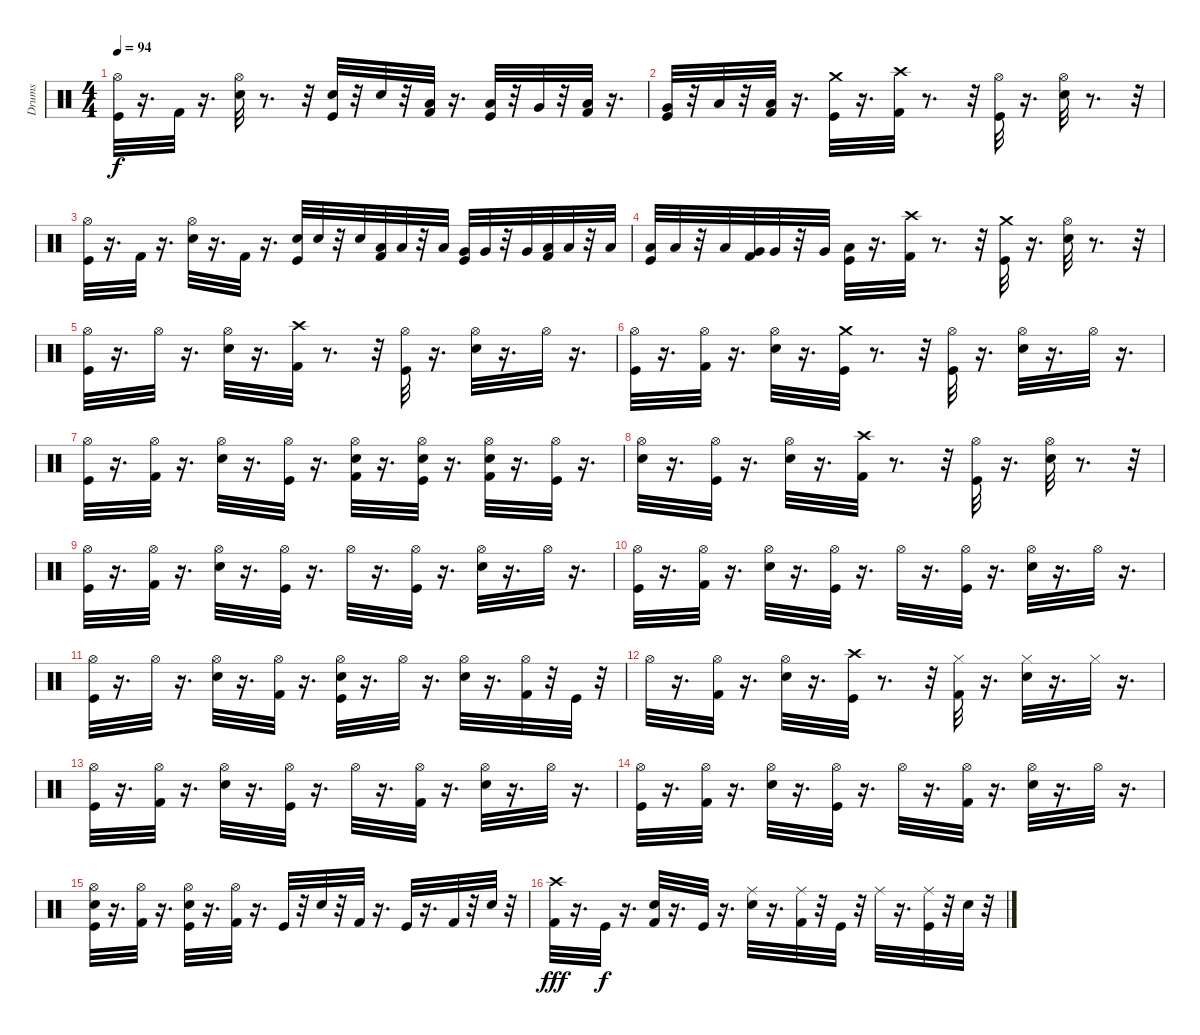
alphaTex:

\track ("Drums" "Drums") {instrument percussion}
\staff {score}
\articulation defaults
\ts (4 4)
\tempo 94
\clef neutral
\ks c
("Hi-Hat (open)" "Kick (hit)").32{dy f} r.16{d} "Kick (hit) 2".32 r.16{d} ("Electric Snare (hit)" "Hi-Hat (open)").32 r.8{d} r.32 ("Electric Snare (hit)" "Kick (hit)").32 r.32 "Electric Snare (hit)".32 r.32 ("Low Tom (hit)" "Kick (hit) 2").32 r.16{d} ("Low Tom (hit)" "Kick (hit)").32 r.32 "Very Low Tom (hit)".32 r.32 ("Low Floor Tom (hit)" "Kick (hit) 2").32 r.16{d} |
("Very Low Tom (hit)" "Kick (hit)").32 r.32 "Low Floor Tom (hit)".32 r.32 ("Kick (hit) 2" "Low Floor Tom (hit)").32 r.16{d} ("Crash medium (hit)" "Kick (hit)").32 r.16{d} ("Crash high (hit)" "Kick (hit) 2").32 r.8{d} r.32 ("Kick (hit)" "Hi-Hat (open)").32 r.16{d} ("Electric Snare (hit)" "Hi-Hat (open)").32 r.8{d} r.32 |
("Kick (hit)" "Hi-Hat (open)").32 r.16{d} "Kick (hit) 2".32 r.16{d} ("Electric Snare (hit)" "Hi-Hat (open)").32 r.16{d} "Kick (hit) 2".32 r.16{d} ("Electric Snare (hit)" "Kick (hit)").32 "Electric Snare (hit)".32 r.32 "Electric Snare (hit)".32 ("Low Tom (hit)" "Kick (hit) 2").32 "Low Tom (hit)".32 r.32 "Low Tom (hit)".32 ("Very Low Tom (hit)" "Kick (hit)").32 "Very Low Tom (hit)".32 r.32 "Very Low Tom (hit)".32 ("Low Floor Tom (hit)" "Kick (hit) 2").32 "Low Floor Tom (hit)".32 r.32 "Low Floor Tom (hit)".32 |
("Low Tom (hit)" "Kick (hit)").32 "Low Tom (hit)".32 r.32 "Low Tom (hit)".32 ("Very Low Tom (hit)" "Kick (hit) 2").32 "Very Low Tom (hit)".32 r.32 "Very Low Tom (hit)".32 ("Low Floor Tom (hit)" "Kick (hit)").32 r.16{d} ("Crash high (hit)" "Kick (hit) 2").32 r.8{d} r.32 ("Kick (hit)" "Crash medium (hit)").32 r.16{d} ("Electric Snare (hit)" "Hi-Hat (open)").32 r.8{d} r.32 |
("Hi-Hat (open)" "Kick (hit)").32 r.16{d} "Hi-Hat (open)".32 r.16{d} ("Hi-Hat (open)" "Electric Snare (hit)").32 r.16{d} ("Crash high (hit)" "Kick (hit) 2").32 r.8{d} r.32 ("Hi-Hat (open)" "Kick (hit)").32 r.16{d} ("Hi-Hat (open)" "Electric Snare (hit)").32 r.16{d} "Hi-Hat (open)".32 r.16{d} |
("Hi-Hat (open)" "Kick (hit)").32 r.16{d} ("Hi-Hat (open)" "Kick (hit) 2").32 r.16{d} ("Hi-Hat (open)" "Electric Snare (hit)").32 r.16{d} ("Crash medium (hit)" "Kick (hit)").32 r.8{d} r.32 ("Hi-Hat (open)" "Kick (hit)").32 r.16{d} ("Hi-Hat (open)" "Electric Snare (hit)").32 r.16{d} "Hi-Hat (open)".32 r.16{d} |
("Hi-Hat (open)" "Kick (hit)").32 r.16{d} ("Hi-Hat (open)" "Kick (hit) 2").32 r.16{d} ("Hi-Hat (open)" "Electric Snare (hit)").32 r.16{d} ("Hi-Hat (open)" "Kick (hit)").32 r.16{d} ("Hi-Hat (open)" "Kick (hit) 2" "Electric Snare (hit)").32 r.16{d} ("Hi-Hat (open)" "Kick (hit)" "Electric Snare (hit)").32 r.16{d} ("Hi-Hat (open)" "Kick (hit) 2" "Electric Snare (hit)").32 r.16{d} ("Hi-Hat (open)" "Kick (hit)").32 r.16{d} |
("Hi-Hat (open)" "Electric Snare (hit)").32 r.16{d} ("Hi-Hat (open)" "Kick (hit)").32 r.16{d} ("Hi-Hat (open)" "Electric Snare (hit)").32 r.16{d} ("Crash high (hit)" "Kick (hit) 2").32 r.8{d} r.32 ("Hi-Hat (open)" "Kick (hit)").32 r.16{d} ("Hi-Hat (open)" "Electric Snare (hit)").32 r.8{d} r.32 |
("Kick (hit)" "Hi-Hat (open)").32 r.16{d} ("Kick (hit) 2" "Hi-Hat (open)").32 r.16{d} ("Electric Snare (hit)" "Hi-Hat (open)").32 r.16{d} ("Kick (hit)" "Hi-Hat (open)").32 r.16{d} "Hi-Hat (open)".32 r.16{d} ("Kick (hit)" "Hi-Hat (open)").32 r.16{d} ("Electric Snare (hit)" "Hi-Hat (open)").32 r.16{d} "Hi-Hat (open)".32 r.16{d} |
("Hi-Hat (open)" "Kick (hit)").32 r.16{d} ("Hi-Hat (open)" "Kick (hit) 2").32 r.16{d} ("Hi-Hat (open)" "Electric Snare (hit)").32 r.16{d} ("Hi-Hat (open)" "Kick (hit)").32 r.16{d} "Hi-Hat (open)".32 r.16{d} ("Hi-Hat (open)" "Kick (hit)").32 r.16{d} ("Hi-Hat (open)" "Electric Snare (hit)").32 r.16{d} "Hi-Hat (open)".32 r.16{d} |
("Kick (hit)" "Hi-Hat (open)").32 r.16{d} "Hi-Hat (open)".32 r.16{d} ("Electric Snare (hit)" "Hi-Hat (open)").32 r.16{d} ("Kick (hit) 2" "Hi-Hat (open)").32 r.16{d} ("Kick (hit)" "Electric Snare (hit)" "Hi-Hat (open)").32 r.16{d} "Hi-Hat (open)".32 r.16{d} ("Electric Snare (hit)" "Hi-Hat (open)").32 r.16{d} ("Kick (hit) 2" "Hi-Hat (open)").32 r.32 "Kick (hit)".32 r.32 |
"Hi-Hat (open)".32 r.16{d} ("Hi-Hat (open)" "Kick (hit) 2").32 r.16{d} ("Hi-Hat (open)" "Electric Snare (hit)").32 r.16{d} ("Crash high (hit)" "Kick (hit)").32 r.8{d} r.32 ("Hi-Hat (closed)" "Kick (hit) 2").32 r.16{d} ("Hi-Hat (closed)" "Electric Snare (hit)").32 r.16{d} "Hi-Hat (closed)".32 r.16{d} |
("Hi-Hat (open)" "Kick (hit)").32 r.16{d} ("Hi-Hat (open)" "Kick (hit) 2").32 r.16{d} ("Hi-Hat (open)" "Electric Snare (hit)").32 r.16{d} ("Hi-Hat (open)" "Kick (hit)").32 r.16{d} "Hi-Hat (open)".32 r.16{d} ("Hi-Hat (open)" "Kick (hit) 2").32 r.16{d} ("Hi-Hat (open)" "Electric Snare (hit)").32 r.16{d} "Hi-Hat (open)".32 r.16{d} |
("Hi-Hat (open)" "Kick (hit)").32 r.16{d} ("Hi-Hat (open)" "Kick (hit) 2").32 r.16{d} ("Hi-Hat (open)" "Electric Snare (hit)").32 r.16{d} ("Hi-Hat (open)" "Kick (hit)").32 r.16{d} "Hi-Hat (open)".32 r.16{d} ("Hi-Hat (open)" "Kick (hit) 2").32 r.16{d} ("Electric Snare (hit)" "Hi-Hat (open)").32 r.16{d} "Hi-Hat (open)".32 r.16{d} |
("Hi-Hat (open)" "Electric Snare (hit)" "Kick (hit)").32 r.16{d} ("Hi-Hat (open)" "Kick (hit) 2").32 r.16{d} ("Hi-Hat (open)" "Kick (hit)" "Electric Snare (hit)").32 r.16{d} ("Kick (hit) 2" "Hi-Hat (open)").32 r.16{d} "Kick (hit)".32 r.32 "Electric Snare (hit)".32 r.32 "Kick (hit) 2".32 r.16{d} "Kick (hit)".32 r.16{d} "Kick (hit) 2".32 r.32 "Electric Snare (hit)".32 r.32 |
("Kick (hit) 2" "Crash high (hit)").32{dy fff} r.16{d} "Kick (hit)".32{dy f} r.16{d} ("Kick (hit) 2" "Electric Snare (hit)").32 r.16{d} "Kick (hit)".32 r.16{d} ("Ride (middle)" "Electric Snare (hit)").32 r.16{d} ("Ride (middle)" "Kick (hit) 2").32 r.32 "Kick (hit)".32 r.32 "Ride (middle)".32 r.16{d} ("Ride (middle)" "Kick (hit)").32 r.32 "Electric Snare (hit)".32 r.32
